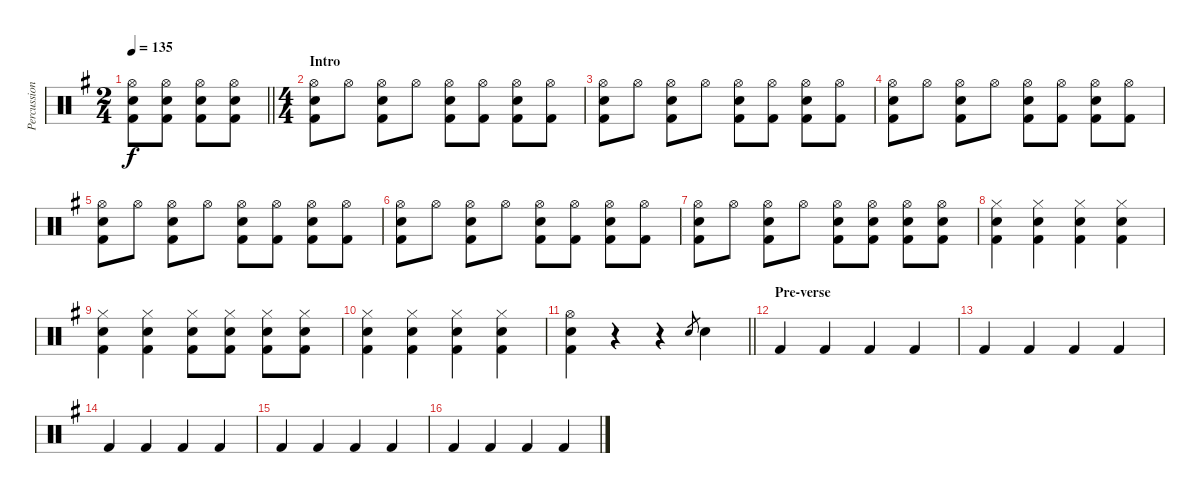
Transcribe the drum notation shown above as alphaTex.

\track ("Percussion" "Percussion") {instrument percussion}
\staff {score}
\articulation defaults
\ts (2 4)
\tempo 135
\clef neutral
\barLineRight lightlight
\ks g
("Hi-Hat (open)" "Snare (hit) 2" "Kick (hit) 2").8{dy f} ("Hi-Hat (open)" "Snare (hit) 2" "Kick (hit) 2").8 ("Hi-Hat (open)" "Snare (hit) 2" "Kick (hit) 2").8 ("Hi-Hat (open)" "Snare (hit) 2" "Kick (hit) 2").8 |
\ts (4 4)
\section ("" "Intro")
("Hi-Hat (open)" "Snare (hit) 2" "Kick (hit) 2").8 "Hi-Hat (open)".8 ("Hi-Hat (open)" "Snare (hit) 2" "Kick (hit) 2").8 "Hi-Hat (open)".8 ("Hi-Hat (open)" "Snare (hit) 2" "Kick (hit) 2").8 ("Hi-Hat (open)" "Kick (hit) 2").8 ("Hi-Hat (open)" "Snare (hit) 2" "Kick (hit) 2").8 ("Hi-Hat (open)" "Kick (hit) 2").8 |
("Hi-Hat (open)" "Snare (hit) 2" "Kick (hit) 2").8 "Hi-Hat (open)".8 ("Hi-Hat (open)" "Snare (hit) 2" "Kick (hit) 2").8 "Hi-Hat (open)".8 ("Hi-Hat (open)" "Snare (hit) 2" "Kick (hit) 2").8 ("Hi-Hat (open)" "Kick (hit) 2").8 ("Hi-Hat (open)" "Snare (hit) 2" "Kick (hit) 2").8 ("Hi-Hat (open)" "Kick (hit) 2").8 |
("Hi-Hat (open)" "Snare (hit) 2" "Kick (hit) 2").8 "Hi-Hat (open)".8 ("Hi-Hat (open)" "Snare (hit) 2" "Kick (hit) 2").8 "Hi-Hat (open)".8 ("Hi-Hat (open)" "Snare (hit) 2" "Kick (hit) 2").8 ("Hi-Hat (open)" "Kick (hit) 2").8 ("Hi-Hat (open)" "Snare (hit) 2" "Kick (hit) 2").8 ("Hi-Hat (open)" "Kick (hit) 2").8 |
("Hi-Hat (open)" "Snare (hit) 2" "Kick (hit) 2").8 "Hi-Hat (open)".8 ("Hi-Hat (open)" "Snare (hit) 2" "Kick (hit) 2").8 "Hi-Hat (open)".8 ("Hi-Hat (open)" "Snare (hit) 2" "Kick (hit) 2").8 ("Hi-Hat (open)" "Kick (hit) 2").8 ("Hi-Hat (open)" "Snare (hit) 2" "Kick (hit) 2").8 ("Hi-Hat (open)" "Kick (hit) 2").8 |
("Hi-Hat (open)" "Snare (hit) 2" "Kick (hit) 2").8 "Hi-Hat (open)".8 ("Hi-Hat (open)" "Snare (hit) 2" "Kick (hit) 2").8 "Hi-Hat (open)".8 ("Hi-Hat (open)" "Snare (hit) 2" "Kick (hit) 2").8 ("Hi-Hat (open)" "Kick (hit) 2").8 ("Hi-Hat (open)" "Snare (hit) 2" "Kick (hit) 2").8 ("Hi-Hat (open)" "Kick (hit) 2").8 |
("Hi-Hat (open)" "Snare (hit) 2" "Kick (hit) 2").8 "Hi-Hat (open)".8 ("Hi-Hat (open)" "Snare (hit) 2" "Kick (hit) 2").8 "Hi-Hat (open)".8 ("Hi-Hat (open)" "Snare (hit) 2" "Kick (hit) 2").8 ("Hi-Hat (open)" "Snare (hit) 2" "Kick (hit) 2").8 ("Hi-Hat (open)" "Snare (hit) 2" "Kick (hit) 2").8 ("Hi-Hat (open)" "Snare (hit) 2" "Kick (hit) 2").8 |
("Hi-Hat (closed)" "Snare (hit) 2" "Kick (hit) 2").4 ("Hi-Hat (closed)" "Snare (hit) 2" "Kick (hit) 2").4 ("Hi-Hat (closed)" "Snare (hit) 2" "Kick (hit) 2").4 ("Hi-Hat (closed)" "Snare (hit) 2" "Kick (hit) 2").4 |
("Hi-Hat (closed)" "Snare (hit) 2" "Kick (hit) 2").4 ("Hi-Hat (closed)" "Snare (hit) 2" "Kick (hit) 2").4 ("Hi-Hat (closed)" "Snare (hit) 2" "Kick (hit) 2").8 ("Hi-Hat (closed)" "Snare (hit) 2" "Kick (hit) 2").8 ("Hi-Hat (closed)" "Snare (hit) 2" "Kick (hit) 2").8 ("Hi-Hat (closed)" "Snare (hit) 2" "Kick (hit) 2").8 |
("Hi-Hat (closed)" "Snare (hit) 2" "Kick (hit) 2").4 ("Hi-Hat (closed)" "Snare (hit) 2" "Kick (hit) 2").4 ("Hi-Hat (closed)" "Snare (hit) 2" "Kick (hit) 2").4 ("Hi-Hat (closed)" "Snare (hit) 2" "Kick (hit) 2").4 |
\barLineRight lightlight
("Hi-Hat (open)" "Snare (hit) 2" "Kick (hit) 2").4 r.4 r.4 "Snare (hit) 2".8{gr} "Snare (hit) 2".4 |
\section ("" "Pre-verse")
"Kick (hit) 2".4 "Kick (hit) 2".4 "Kick (hit) 2".4 "Kick (hit) 2".4 |
"Kick (hit) 2".4 "Kick (hit) 2".4 "Kick (hit) 2".4 "Kick (hit) 2".4 |
"Kick (hit) 2".4 "Kick (hit) 2".4 "Kick (hit) 2".4 "Kick (hit) 2".4 |
"Kick (hit) 2".4 "Kick (hit) 2".4 "Kick (hit) 2".4 "Kick (hit) 2".4 |
"Kick (hit) 2".4 "Kick (hit) 2".4 "Kick (hit) 2".4 "Kick (hit) 2".4
